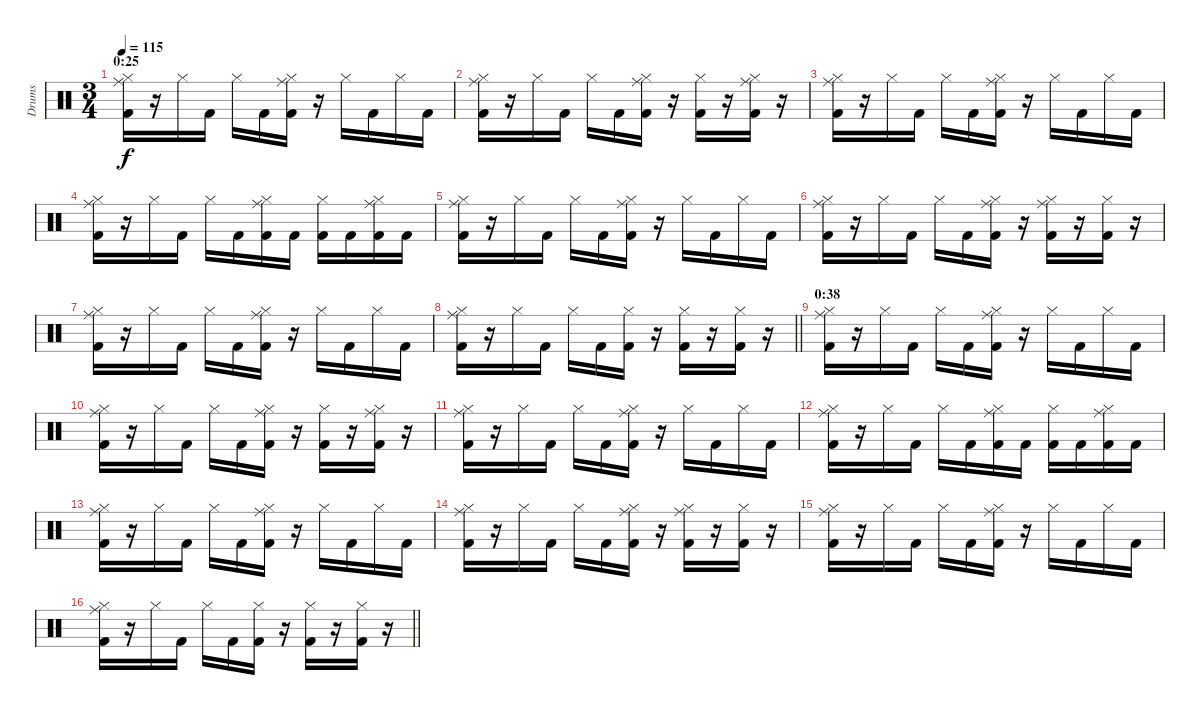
\track ("Drums" "Drums") {instrument percussion}
\staff {score}
\articulation defaults
\ts (3 4)
\section ("" "0:25")
\tempo 115
\clef neutral
\ks c
("Hi-Hat (closed)" "Ride (middle)" "Kick (hit) 2").16{dy f} r.16 "Hi-Hat (closed)".16 "Kick (hit) 2".16 "Hi-Hat (closed)".16 "Kick (hit) 2".16 ("Hi-Hat (closed)" "Ride (middle)" "Kick (hit) 2").16 r.16 "Hi-Hat (closed)".16 "Kick (hit) 2".16 "Hi-Hat (closed)".16 "Kick (hit) 2".16 |
("Hi-Hat (closed)" "Ride (middle)" "Kick (hit) 2").16 r.16 "Hi-Hat (closed)".16 "Kick (hit) 2".16 "Hi-Hat (closed)".16 "Kick (hit) 2".16 ("Hi-Hat (closed)" "Ride (middle)" "Kick (hit) 2").16 r.16 ("Hi-Hat (closed)" "Kick (hit) 2").16 r.16 ("Hi-Hat (closed)" "Ride (middle)" "Kick (hit) 2").16 r.16 |
("Hi-Hat (closed)" "Ride (middle)" "Kick (hit) 2").16 r.16 "Hi-Hat (closed)".16 "Kick (hit) 2".16 "Hi-Hat (closed)".16 "Kick (hit) 2".16 ("Hi-Hat (closed)" "Ride (middle)" "Kick (hit) 2").16 r.16 "Hi-Hat (closed)".16 "Kick (hit) 2".16 "Hi-Hat (closed)".16 "Kick (hit) 2".16 |
("Hi-Hat (closed)" "Ride (middle)" "Kick (hit) 2").16 r.16 "Hi-Hat (closed)".16 "Kick (hit) 2".16 "Hi-Hat (closed)".16 "Kick (hit) 2".16 ("Hi-Hat (closed)" "Ride (middle)" "Kick (hit) 2").16 "Kick (hit) 2".16 ("Hi-Hat (closed)" "Kick (hit) 2").16 "Kick (hit) 2".16 ("Hi-Hat (closed)" "Ride (middle)" "Kick (hit) 2").16 "Kick (hit) 2".16 |
("Hi-Hat (closed)" "Ride (middle)" "Kick (hit) 2").16 r.16 "Hi-Hat (closed)".16 "Kick (hit) 2".16 "Hi-Hat (closed)".16 "Kick (hit) 2".16 ("Hi-Hat (closed)" "Ride (middle)" "Kick (hit) 2").16 r.16 "Hi-Hat (closed)".16 "Kick (hit) 2".16 "Hi-Hat (closed)".16 "Kick (hit) 2".16 |
("Hi-Hat (closed)" "Ride (middle)" "Kick (hit) 2").16 r.16 "Hi-Hat (closed)".16 "Kick (hit) 2".16 "Hi-Hat (closed)".16 "Kick (hit) 2".16 ("Hi-Hat (closed)" "Ride (middle)" "Kick (hit) 2").16 r.16 ("Hi-Hat (closed)" "Ride (middle)" "Kick (hit) 2").16 r.16 ("Hi-Hat (closed)" "Kick (hit) 2").16 r.16 |
("Hi-Hat (closed)" "Ride (middle)" "Kick (hit) 2").16 r.16 "Hi-Hat (closed)".16 "Kick (hit) 2".16 "Hi-Hat (closed)".16 "Kick (hit) 2".16 ("Hi-Hat (closed)" "Ride (middle)" "Kick (hit) 2").16 r.16 "Hi-Hat (closed)".16 "Kick (hit) 2".16 "Hi-Hat (closed)".16 "Kick (hit) 2".16 |
\barLineRight lightlight
("Hi-Hat (closed)" "Ride (middle)" "Kick (hit) 2").16 r.16 "Hi-Hat (closed)".16 "Kick (hit) 2".16 "Hi-Hat (closed)".16 "Kick (hit) 2".16 ("Hi-Hat (closed)" "Kick (hit) 2").16 r.16 ("Hi-Hat (closed)" "Kick (hit) 2").16 r.16 ("Hi-Hat (closed)" "Kick (hit) 2").16 r.16 |
\section ("" "0:38")
("Hi-Hat (closed)" "Ride (middle)" "Kick (hit) 2").16 r.16 "Hi-Hat (closed)".16 "Kick (hit) 2".16 "Hi-Hat (closed)".16 "Kick (hit) 2".16 ("Hi-Hat (closed)" "Ride (middle)" "Kick (hit) 2").16 r.16 "Hi-Hat (closed)".16 "Kick (hit) 2".16 "Hi-Hat (closed)".16 "Kick (hit) 2".16 |
("Hi-Hat (closed)" "Ride (middle)" "Kick (hit) 2").16 r.16 "Hi-Hat (closed)".16 "Kick (hit) 2".16 "Hi-Hat (closed)".16 "Kick (hit) 2".16 ("Hi-Hat (closed)" "Ride (middle)" "Kick (hit) 2").16 r.16 ("Hi-Hat (closed)" "Kick (hit) 2").16 r.16 ("Hi-Hat (closed)" "Ride (middle)" "Kick (hit) 2").16 r.16 |
("Hi-Hat (closed)" "Ride (middle)" "Kick (hit) 2").16 r.16 "Hi-Hat (closed)".16 "Kick (hit) 2".16 "Hi-Hat (closed)".16 "Kick (hit) 2".16 ("Hi-Hat (closed)" "Ride (middle)" "Kick (hit) 2").16 r.16 "Hi-Hat (closed)".16 "Kick (hit) 2".16 "Hi-Hat (closed)".16 "Kick (hit) 2".16 |
("Hi-Hat (closed)" "Ride (middle)" "Kick (hit) 2").16 r.16 "Hi-Hat (closed)".16 "Kick (hit) 2".16 "Hi-Hat (closed)".16 "Kick (hit) 2".16 ("Hi-Hat (closed)" "Ride (middle)" "Kick (hit) 2").16 "Kick (hit) 2".16 ("Hi-Hat (closed)" "Kick (hit) 2").16 "Kick (hit) 2".16 ("Hi-Hat (closed)" "Ride (middle)" "Kick (hit) 2").16 "Kick (hit) 2".16 |
("Hi-Hat (closed)" "Ride (middle)" "Kick (hit) 2").16 r.16 "Hi-Hat (closed)".16 "Kick (hit) 2".16 "Hi-Hat (closed)".16 "Kick (hit) 2".16 ("Hi-Hat (closed)" "Ride (middle)" "Kick (hit) 2").16 r.16 "Hi-Hat (closed)".16 "Kick (hit) 2".16 "Hi-Hat (closed)".16 "Kick (hit) 2".16 |
("Hi-Hat (closed)" "Ride (middle)" "Kick (hit) 2").16 r.16 "Hi-Hat (closed)".16 "Kick (hit) 2".16 "Hi-Hat (closed)".16 "Kick (hit) 2".16 ("Hi-Hat (closed)" "Ride (middle)" "Kick (hit) 2").16 r.16 ("Hi-Hat (closed)" "Ride (middle)" "Kick (hit) 2").16 r.16 ("Hi-Hat (closed)" "Kick (hit) 2").16 r.16 |
("Hi-Hat (closed)" "Ride (middle)" "Kick (hit) 2").16 r.16 "Hi-Hat (closed)".16 "Kick (hit) 2".16 "Hi-Hat (closed)".16 "Kick (hit) 2".16 ("Hi-Hat (closed)" "Ride (middle)" "Kick (hit) 2").16 r.16 "Hi-Hat (closed)".16 "Kick (hit) 2".16 "Hi-Hat (closed)".16 "Kick (hit) 2".16 |
\barLineRight lightlight
("Hi-Hat (closed)" "Ride (middle)" "Kick (hit) 2").16 r.16 "Hi-Hat (closed)".16 "Kick (hit) 2".16 "Hi-Hat (closed)".16 "Kick (hit) 2".16 ("Hi-Hat (closed)" "Kick (hit) 2").16 r.16 ("Hi-Hat (closed)" "Kick (hit) 2").16 r.16 ("Hi-Hat (closed)" "Kick (hit) 2").16 r.16
